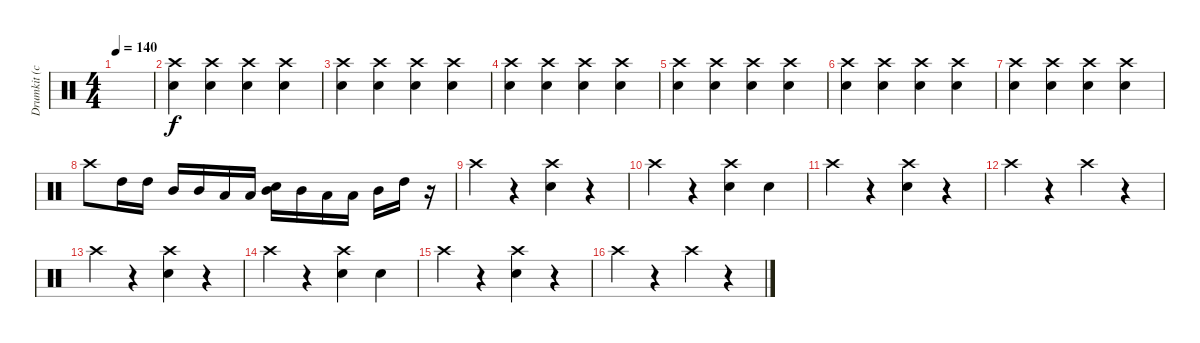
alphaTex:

\track ("Drumkit (cymbals)" "Drumkit (c") {instrument percussion}
\staff {score}
\articulation defaults
\ts (4 4)
\tempo 140
\clef neutral
\ks c
|
("Crash high (hit)" "Snare (hit) 2").4 ("Crash high (hit)" "Snare (hit) 2").4 ("Crash high (hit)" "Snare (hit) 2").4 ("Crash high (hit)" "Snare (hit) 2").4 |
("Crash high (hit)" "Snare (hit) 2").4 ("Crash high (hit)" "Snare (hit) 2").4 ("Crash high (hit)" "Snare (hit) 2").4 ("Crash high (hit)" "Snare (hit) 2").4 |
("Crash high (hit)" "Snare (hit) 2").4 ("Crash high (hit)" "Snare (hit) 2").4 ("Crash high (hit)" "Snare (hit) 2").4 ("Crash high (hit)" "Snare (hit) 2").4 |
("Crash high (hit)" "Snare (hit) 2").4 ("Crash high (hit)" "Snare (hit) 2").4 ("Crash high (hit)" "Snare (hit) 2").4 ("Crash high (hit)" "Snare (hit) 2").4 |
("Crash high (hit)" "Snare (hit) 2").4 ("Crash high (hit)" "Snare (hit) 2").4 ("Crash high (hit)" "Snare (hit) 2").4 ("Crash high (hit)" "Snare (hit) 2").4 |
("Crash high (hit)" "Snare (hit) 2").4 ("Crash high (hit)" "Snare (hit) 2").4 ("Crash high (hit)" "Snare (hit) 2").4 ("Crash high (hit)" "Snare (hit) 2").4 |
"Crash high (hit)".8 "High Tom (hit)".16 "High Tom (hit)".16 "Mid Tom (hit)".16 "Mid Tom (hit)".16 "Low Tom (hit)".16 "Low Tom (hit)".16 ("Mid Tom (hit)" "Snare (hit) 2").16 "Mid Tom (hit)".16 "Low Tom (hit)".16 "Low Tom (hit)".16 "Mid Tom (hit)".16 "High Tom (hit)".16 r.16 |
"Crash high (hit)".4 r.4 ("Crash high (hit)" "Snare (hit) 2").4 r.4 |
"Crash high (hit)".4 r.4 ("Crash high (hit)" "Snare (hit) 2").4 "Snare (hit) 2".4 |
"Crash high (hit)".4 r.4 ("Crash high (hit)" "Snare (hit) 2").4 r.4 |
"Crash high (hit)".4 r.4 "Crash high (hit)".4 r.4 |
"Crash high (hit)".4 r.4 ("Crash high (hit)" "Snare (hit) 2").4 r.4 |
"Crash high (hit)".4 r.4 ("Crash high (hit)" "Snare (hit) 2").4 "Snare (hit) 2".4 |
"Crash high (hit)".4 r.4 ("Crash high (hit)" "Snare (hit) 2").4 r.4 |
"Crash high (hit)".4 r.4 "Crash high (hit)".4 r.4
